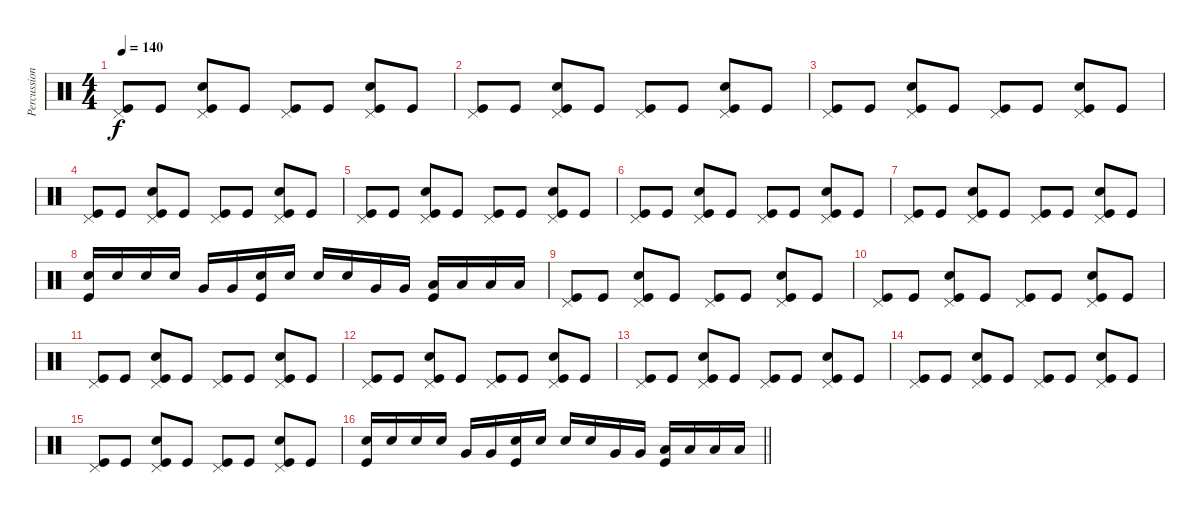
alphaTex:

\track ("Percussion" "Percussion") {instrument percussion}
\staff {score}
\articulation defaults
\ts (4 4)
\tempo 140
\clef neutral
\ks c
("Pedal Hi-Hat (hit)" "Kick (hit)").8{dy f} "Kick (hit)".8 ("Pedal Hi-Hat (hit)" "Snare (hit) 2" "Kick (hit)").8 "Kick (hit)".8 ("Pedal Hi-Hat (hit)" "Kick (hit)").8 "Kick (hit)".8 ("Pedal Hi-Hat (hit)" "Snare (hit) 2" "Kick (hit)").8 "Kick (hit)".8 |
("Pedal Hi-Hat (hit)" "Kick (hit)").8 "Kick (hit)".8 ("Pedal Hi-Hat (hit)" "Snare (hit) 2" "Kick (hit)").8 "Kick (hit)".8 ("Pedal Hi-Hat (hit)" "Kick (hit)").8 "Kick (hit)".8 ("Pedal Hi-Hat (hit)" "Snare (hit) 2" "Kick (hit)").8 "Kick (hit)".8 |
("Pedal Hi-Hat (hit)" "Kick (hit)").8 "Kick (hit)".8 ("Pedal Hi-Hat (hit)" "Snare (hit) 2" "Kick (hit)").8 "Kick (hit)".8 ("Pedal Hi-Hat (hit)" "Kick (hit)").8 "Kick (hit)".8 ("Pedal Hi-Hat (hit)" "Snare (hit) 2" "Kick (hit)").8 "Kick (hit)".8 |
("Pedal Hi-Hat (hit)" "Kick (hit)").8 "Kick (hit)".8 ("Pedal Hi-Hat (hit)" "Snare (hit) 2" "Kick (hit)").8 "Kick (hit)".8 ("Pedal Hi-Hat (hit)" "Kick (hit)").8 "Kick (hit)".8 ("Pedal Hi-Hat (hit)" "Snare (hit) 2" "Kick (hit)").8 "Kick (hit)".8 |
("Pedal Hi-Hat (hit)" "Kick (hit)").8 "Kick (hit)".8 ("Pedal Hi-Hat (hit)" "Snare (hit) 2" "Kick (hit)").8 "Kick (hit)".8 ("Pedal Hi-Hat (hit)" "Kick (hit)").8 "Kick (hit)".8 ("Pedal Hi-Hat (hit)" "Snare (hit) 2" "Kick (hit)").8 "Kick (hit)".8 |
("Pedal Hi-Hat (hit)" "Kick (hit)").8 "Kick (hit)".8 ("Pedal Hi-Hat (hit)" "Snare (hit) 2" "Kick (hit)").8 "Kick (hit)".8 ("Pedal Hi-Hat (hit)" "Kick (hit)").8 "Kick (hit)".8 ("Pedal Hi-Hat (hit)" "Snare (hit) 2" "Kick (hit)").8 "Kick (hit)".8 |
("Pedal Hi-Hat (hit)" "Kick (hit)").8 "Kick (hit)".8 ("Pedal Hi-Hat (hit)" "Snare (hit) 2" "Kick (hit)").8 "Kick (hit)".8 ("Pedal Hi-Hat (hit)" "Kick (hit)").8 "Kick (hit)".8 ("Pedal Hi-Hat (hit)" "Snare (hit) 2" "Kick (hit)").8 "Kick (hit)".8 |
("Snare (hit) 2" "Kick (hit)").16 "Snare (hit) 2".16 "Snare (hit) 2".16 "Snare (hit) 2".16 "Very Low Tom (hit)".16 "Very Low Tom (hit)".16 ("Snare (hit) 2" "Kick (hit)").16 "Snare (hit) 2".16 "Snare (hit) 2".16 "Snare (hit) 2".16 "Very Low Tom (hit)".16 "Very Low Tom (hit)".16 ("Low Floor Tom (hit)" "Kick (hit)").16 "Low Floor Tom (hit)".16 "Low Floor Tom (hit)".16 "Low Floor Tom (hit)".16 |
("Pedal Hi-Hat (hit)" "Kick (hit)").8 "Kick (hit)".8 ("Pedal Hi-Hat (hit)" "Snare (hit) 2" "Kick (hit)").8 "Kick (hit)".8 ("Pedal Hi-Hat (hit)" "Kick (hit)").8 "Kick (hit)".8 ("Pedal Hi-Hat (hit)" "Snare (hit) 2" "Kick (hit)").8 "Kick (hit)".8 |
("Pedal Hi-Hat (hit)" "Kick (hit)").8 "Kick (hit)".8 ("Pedal Hi-Hat (hit)" "Snare (hit) 2" "Kick (hit)").8 "Kick (hit)".8 ("Pedal Hi-Hat (hit)" "Kick (hit)").8 "Kick (hit)".8 ("Pedal Hi-Hat (hit)" "Snare (hit) 2" "Kick (hit)").8 "Kick (hit)".8 |
("Pedal Hi-Hat (hit)" "Kick (hit)").8 "Kick (hit)".8 ("Pedal Hi-Hat (hit)" "Snare (hit) 2" "Kick (hit)").8 "Kick (hit)".8 ("Pedal Hi-Hat (hit)" "Kick (hit)").8 "Kick (hit)".8 ("Pedal Hi-Hat (hit)" "Snare (hit) 2" "Kick (hit)").8 "Kick (hit)".8 |
("Pedal Hi-Hat (hit)" "Kick (hit)").8 "Kick (hit)".8 ("Pedal Hi-Hat (hit)" "Snare (hit) 2" "Kick (hit)").8 "Kick (hit)".8 ("Pedal Hi-Hat (hit)" "Kick (hit)").8 "Kick (hit)".8 ("Pedal Hi-Hat (hit)" "Snare (hit) 2" "Kick (hit)").8 "Kick (hit)".8 |
("Pedal Hi-Hat (hit)" "Kick (hit)").8 "Kick (hit)".8 ("Pedal Hi-Hat (hit)" "Snare (hit) 2" "Kick (hit)").8 "Kick (hit)".8 ("Pedal Hi-Hat (hit)" "Kick (hit)").8 "Kick (hit)".8 ("Pedal Hi-Hat (hit)" "Snare (hit) 2" "Kick (hit)").8 "Kick (hit)".8 |
("Pedal Hi-Hat (hit)" "Kick (hit)").8 "Kick (hit)".8 ("Pedal Hi-Hat (hit)" "Snare (hit) 2" "Kick (hit)").8 "Kick (hit)".8 ("Pedal Hi-Hat (hit)" "Kick (hit)").8 "Kick (hit)".8 ("Pedal Hi-Hat (hit)" "Snare (hit) 2" "Kick (hit)").8 "Kick (hit)".8 |
("Pedal Hi-Hat (hit)" "Kick (hit)").8 "Kick (hit)".8 ("Pedal Hi-Hat (hit)" "Snare (hit) 2" "Kick (hit)").8 "Kick (hit)".8 ("Pedal Hi-Hat (hit)" "Kick (hit)").8 "Kick (hit)".8 ("Pedal Hi-Hat (hit)" "Snare (hit) 2" "Kick (hit)").8 "Kick (hit)".8 |
\barLineRight lightlight
("Snare (hit) 2" "Kick (hit)").16 "Snare (hit) 2".16 "Snare (hit) 2".16 "Snare (hit) 2".16 "Very Low Tom (hit)".16 "Very Low Tom (hit)".16 ("Snare (hit) 2" "Kick (hit)").16 "Snare (hit) 2".16 "Snare (hit) 2".16 "Snare (hit) 2".16 "Very Low Tom (hit)".16 "Very Low Tom (hit)".16 ("Low Floor Tom (hit)" "Kick (hit)").16 "Low Floor Tom (hit)".16 "Low Floor Tom (hit)".16 "Low Floor Tom (hit)".16
